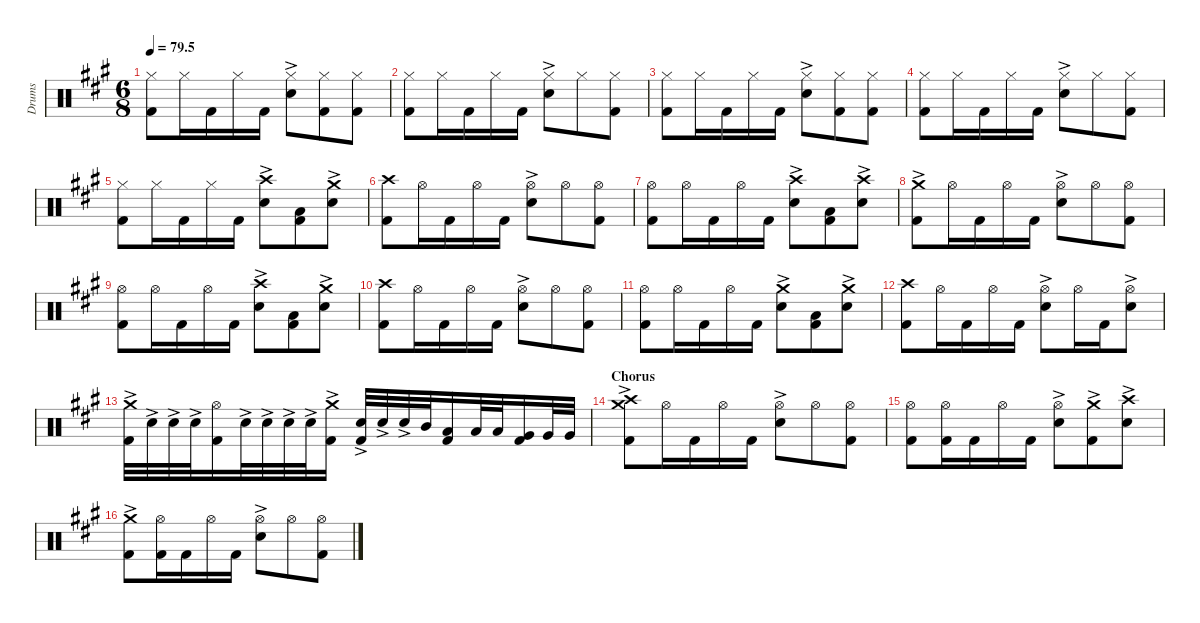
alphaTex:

\defaultSystemsLayout 4
\hideDynamics
\bracketExtendMode nobrackets
\otherSystemsTrackNameOrientation horizontal
\track ("Drumkit (don't unmute)" "Drums") {mute instrument percussion}
\staff {score}
\articulation defaults
\ts (6 8)
\tempo
79.5
\accidentals auto
\clef neutral
\ottava regular
\simile none
\scale
0.333333
\ks a
("Hi-Hat (closed)"{acc forcenatural} "Kick (hit) 2"{acc forcenatural}).8{dy f beam Down} "Hi-Hat (closed)"{acc forcenatural}.16{beam Down} "Kick (hit) 2"{acc forcenatural}.16{beam Down} "Hi-Hat (closed)"{acc forcenatural}.16{beam Down} "Kick (hit) 2"{acc forcenatural}.16{beam Down} ("Hi-Hat (closed)"{acc forcenatural} "Snare (hit) 2"{ac acc forcenatural}).8{beam Down} ("Hi-Hat (closed)"{acc forcenatural} "Kick (hit) 2"{acc forcenatural}).8{beam Down} ("Hi-Hat (closed)"{acc forcenatural} "Kick (hit) 2"{acc forcenatural}).8{beam Down} |
\scale
0.333333 ("Kick (hit) 2"{acc forcenatural} "Hi-Hat (closed)"{acc forcenatural}).8{beam Down} "Hi-Hat (closed)"{acc forcenatural}.16{beam Down} "Kick (hit) 2"{acc forcenatural}.16{beam Down} "Hi-Hat (closed)"{acc forcenatural}.16{beam Down} "Kick (hit) 2"{acc forcenatural}.16{beam Down} ("Hi-Hat (closed)"{acc forcenatural} "Snare (hit) 2"{ac acc forcenatural}).8{beam Down} "Hi-Hat (closed)"{acc forcenatural}.8{beam Down} ("Hi-Hat (closed)"{acc forcenatural} "Kick (hit) 2"{acc forcenatural}).8{beam Down} |
\scale
0.333333 ("Hi-Hat (closed)"{acc forcenatural} "Kick (hit) 2"{acc forcenatural}).8{beam Down} "Hi-Hat (closed)"{acc forcenatural}.16{beam Down} "Kick (hit) 2"{acc forcenatural}.16{beam Down} "Hi-Hat (closed)"{acc forcenatural}.16{beam Down} "Kick (hit) 2"{acc forcenatural}.16{beam Down} ("Hi-Hat (closed)"{acc forcenatural} "Snare (hit) 2"{ac acc forcenatural}).8{beam Down} ("Hi-Hat (closed)"{acc forcenatural} "Kick (hit) 2"{acc forcenatural}).8{beam Down} ("Hi-Hat (closed)"{acc forcenatural} "Kick (hit) 2"{acc forcenatural}).8{beam Down} |
\scale
0.333333 ("Kick (hit) 2"{acc forcenatural} "Hi-Hat (closed)"{acc forcenatural}).8{beam Down} "Hi-Hat (closed)"{acc forcenatural}.16{beam Down} "Kick (hit) 2"{acc forcenatural}.16{beam Down} "Hi-Hat (closed)"{acc forcenatural}.16{beam Down} "Kick (hit) 2"{acc forcenatural}.16{beam Down} ("Hi-Hat (closed)"{acc forcenatural} "Snare (hit) 2"{ac acc forcenatural}).8{beam Down} "Hi-Hat (closed)"{acc forcenatural}.8{beam Down} ("Hi-Hat (closed)"{acc forcenatural} "Kick (hit) 2"{acc forcenatural}).8{beam Down} |
\scale
0.333333 ("Kick (hit) 2"{acc forcenatural} "Hi-Hat (closed)"{acc forcenatural}).8{beam Down} "Hi-Hat (closed)"{acc forcenatural}.16{beam Down} "Kick (hit) 2"{acc forcenatural}.16{beam Down} "Hi-Hat (closed)"{acc forcenatural}.16{beam Down} "Kick (hit) 2"{acc forcenatural}.16{beam Down} ("Snare (hit) 2"{ac acc forcenatural} "Crash high (hit)"{acc forcenatural}).8{beam Down} ("Low Tom (hit)"{acc forcenatural} "Kick (hit) 2"{acc forcenatural}).8{beam Down} ("Snare (hit) 2"{ac acc forcenatural} "Crash medium (hit)"{ac acc forcenatural}).8{beam Down} |
\scale
0.333333 ("Crash high (hit)"{acc forcenatural} "Kick (hit) 2"{acc forcenatural}).8{beam Down} "Hi-Hat (open)"{acc forcenatural}.16{beam Down} "Kick (hit) 2"{acc forcenatural}.16{beam Down} "Hi-Hat (open)"{acc forcenatural}.16{beam Down} "Kick (hit) 2"{acc forcenatural}.16{beam Down} ("Hi-Hat (open)"{acc forcenatural} "Snare (hit) 2"{ac acc forcenatural}).8{beam Down} "Hi-Hat (open)"{acc forcenatural}.8{beam Down} ("Hi-Hat (open)"{acc forcenatural} "Kick (hit) 2"{acc forcenatural}).8{beam Down} |
\scale
0.333333 ("Hi-Hat (open)"{acc forcenatural} "Kick (hit) 2"{acc forcenatural}).8{beam Down} "Hi-Hat (open)"{acc forcenatural}.16{beam Down} "Kick (hit) 2"{acc forcenatural}.16{beam Down} "Hi-Hat (open)"{acc forcenatural}.16{beam Down} "Kick (hit) 2"{acc forcenatural}.16{beam Down} ("Snare (hit) 2"{ac acc forcenatural} "Crash high (hit)"{acc forcenatural}).8{beam Down} ("Low Tom (hit)"{acc forcenatural} "Kick (hit) 2"{acc forcenatural}).8{beam Down} ("Snare (hit) 2"{ac acc forcenatural} "Crash high (hit)"{acc forcenatural}).8{beam Down} |
\scale
0.333333 ("Crash medium (hit)"{ac acc forcenatural} "Kick (hit) 2"{acc forcenatural}).8{beam Down} "Hi-Hat (open)"{acc forcenatural}.16{beam Down} "Kick (hit) 2"{acc forcenatural}.16{beam Down} "Hi-Hat (open)"{acc forcenatural}.16{beam Down} "Kick (hit) 2"{acc forcenatural}.16{beam Down} ("Hi-Hat (open)"{acc forcenatural} "Snare (hit) 2"{ac acc forcenatural}).8{beam Down} "Hi-Hat (open)"{acc forcenatural}.8{beam Down} ("Hi-Hat (open)"{acc forcenatural} "Kick (hit) 2"{acc forcenatural}).8{beam Down} |
\scale
0.333333 ("Hi-Hat (open)"{acc forcenatural} "Kick (hit) 2"{acc forcenatural}).8{beam Down} "Hi-Hat (open)"{acc forcenatural}.16{beam Down} "Kick (hit) 2"{acc forcenatural}.16{beam Down} "Hi-Hat (open)"{acc forcenatural}.16{beam Down} "Kick (hit) 2"{acc forcenatural}.16{beam Down} ("Snare (hit) 2"{ac acc forcenatural} "Crash high (hit)"{acc forcenatural}).8{beam Down} ("Low Tom (hit)"{acc forcenatural} "Kick (hit) 2"{acc forcenatural}).8{beam Down} ("Crash medium (hit)"{ac acc forcenatural} "Snare (hit) 2"{ac acc forcenatural}).8{beam Down} |
\scale
0.333333 ("Crash high (hit)"{acc forcenatural} "Kick (hit) 2"{acc forcenatural}).8{beam Down} "Hi-Hat (open)"{acc forcenatural}.16{beam Down} "Kick (hit) 2"{acc forcenatural}.16{beam Down} "Hi-Hat (open)"{acc forcenatural}.16{beam Down} "Kick (hit) 2"{acc forcenatural}.16{beam Down} ("Hi-Hat (open)"{acc forcenatural} "Snare (hit) 2"{ac acc forcenatural}).8{beam Down} "Hi-Hat (open)"{acc forcenatural}.8{beam Down} ("Hi-Hat (open)"{acc forcenatural} "Kick (hit) 2"{acc forcenatural}).8{beam Down} |
\scale
0.333333 ("Hi-Hat (open)"{acc forcenatural} "Kick (hit) 2"{acc forcenatural}).8{beam Down} "Hi-Hat (open)"{acc forcenatural}.16{beam Down} "Kick (hit) 2"{acc forcenatural}.16{beam Down} "Hi-Hat (open)"{acc forcenatural}.16{beam Down} "Kick (hit) 2"{acc forcenatural}.16{beam Down} ("Crash medium (hit)"{ac acc forcenatural} "Snare (hit) 2"{ac acc forcenatural}).8{beam Down} ("Low Tom (hit)"{acc forcenatural} "Kick (hit) 2"{acc forcenatural}).8{beam Down} ("Crash medium (hit)"{ac acc forcenatural} "Snare (hit) 2"{ac acc forcenatural}).8{beam Down} |
\scale
0.475597 ("Crash high (hit)"{acc forcenatural} "Kick (hit) 2"{acc forcenatural}).8{beam Down} "Hi-Hat (open)"{acc forcenatural}.16{beam Down} "Kick (hit) 2"{acc forcenatural}.16{beam Down} "Hi-Hat (open)"{acc forcenatural}.16{beam Down} "Kick (hit) 2"{acc forcenatural}.16{beam Down} ("Hi-Hat (open)"{acc forcenatural} "Snare (hit) 2"{ac acc forcenatural}).8{beam Down} "Hi-Hat (open)"{acc forcenatural}.16{beam Down} "Kick (hit) 2"{acc forcenatural}.16{beam Down} ("Hi-Hat (open)"{acc forcenatural} "Snare (hit) 2"{ac acc forcenatural}).8{beam Down} |
\scale
0.524521 ("Crash medium (hit)"{ac acc forcenatural} "Kick (hit) 2"{acc forcenatural}).32{beam Down} "Snare (hit) 2"{ac acc forcenatural}.32{beam Down} "Snare (hit) 2"{ac acc forcenatural}.32{beam Down} "Snare (hit) 2"{ac acc forcenatural}.32{beam Down} ("Hi-Hat (open)"{acc forcenatural} "Kick (hit) 2"{acc forcenatural}).16{beam Down} "Snare (hit) 2"{ac acc forcenatural}.32{beam Down} "Snare (hit) 2"{ac acc forcenatural}.32{beam Down} "Snare (hit) 2"{ac acc forcenatural}.32{beam Down} "Snare (hit) 2"{ac acc forcenatural}.32{beam Down} ("Crash medium (hit)"{ac acc forcenatural} "Kick (hit) 2"{acc forcenatural}).16{beam Down} ("Snare (hit) 2"{ac acc forcenatural} "Kick (hit) 2"{acc forcenatural}).32{beam Up} "Snare (hit) 2"{ac acc forcenatural}.32{beam Up} "Snare (hit) 2"{ac acc forcenatural}.32{beam Up} "Mid Tom (hit)"{acc forcenatural}.32{beam Up} ("Low Tom (hit)"{acc forcenatural} "Kick (hit) 2"{acc forcenatural}).16{beam Up} "Low Tom (hit)"{acc forcenatural}.32{beam Up} "Low Tom (hit)"{acc forcenatural}.32{beam Up} ("Very Low Tom (hit)"{acc forcenatural} "Kick (hit) 2"{acc forcenatural}).16{beam Up} "Very Low Tom (hit)"{acc forcenatural}.32{beam Up} "Very Low Tom (hit)"{acc forcenatural}.32{beam Up} |
\section ("" "Chorus")
("Crash medium (hit)"{ac acc forcenatural} "Crash high (hit)"{acc forcenatural} "Kick (hit) 2"{acc forcenatural}).8{beam Down} "Hi-Hat (open)"{acc forcenatural}.16{beam Down} "Kick (hit) 2"{acc forcenatural}.16{beam Down} "Hi-Hat (open)"{acc forcenatural}.16{beam Down} "Kick (hit) 2"{acc forcenatural}.16{beam Down} ("Hi-Hat (open)"{acc forcenatural} "Snare (hit) 2"{ac acc forcenatural}).8{beam Down} "Hi-Hat (open)"{acc forcenatural}.8{beam Down} ("Hi-Hat (open)"{acc forcenatural} "Kick (hit) 2"{acc forcenatural}).8{beam Down} |
("Hi-Hat (open)"{acc forcenatural} "Kick (hit) 2"{acc forcenatural}).8{beam Down} ("Hi-Hat (open)"{acc forcenatural} "Kick (hit) 2"{acc forcenatural}).16{beam Down} "Kick (hit) 2"{acc forcenatural}.16{beam Down} "Hi-Hat (open)"{acc forcenatural}.16{beam Down} "Kick (hit) 2"{acc forcenatural}.16{beam Down} ("Snare (hit) 2"{ac acc forcenatural} "Hi-Hat (open)"{acc forcenatural}).8{beam Down} ("Kick (hit) 2"{acc forcenatural} "Crash medium (hit)"{ac acc forcenatural}).8{beam Down} ("Snare (hit) 2"{ac acc forcenatural} "Crash high (hit)"{acc forcenatural}).8{beam Down} |
("Crash medium (hit)"{ac acc forcenatural} "Kick (hit) 2"{acc forcenatural}).8{beam Down} ("Hi-Hat (open)"{acc forcenatural} "Kick (hit) 2"{acc forcenatural}).16{beam Down} "Kick (hit) 2"{acc forcenatural}.16{beam Down} "Hi-Hat (open)"{acc forcenatural}.16{beam Down} "Kick (hit) 2"{acc forcenatural}.16{beam Down} ("Hi-Hat (open)"{acc forcenatural} "Snare (hit) 2"{ac acc forcenatural}).8{beam Down} "Hi-Hat (open)"{acc forcenatural}.8{beam Down} ("Hi-Hat (open)"{acc forcenatural} "Kick (hit) 2"{acc forcenatural}).8{beam Down}
